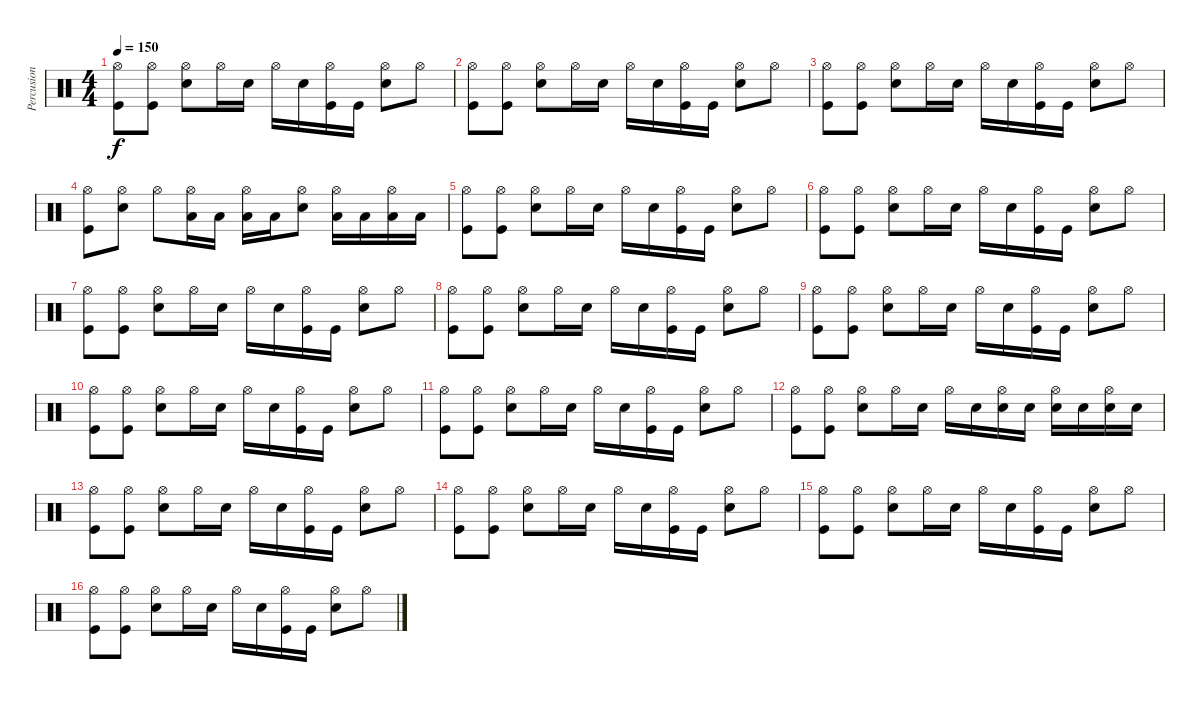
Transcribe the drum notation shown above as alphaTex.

\track ("Percusion" "Percusion") {instrument percussion}
\staff {score}
\articulation defaults
\ts (4 4)
\tempo 150
\clef neutral
\ks c
("Hi-Hat (open)" "Kick (hit)").8{dy f} ("Hi-Hat (open)" "Kick (hit)").8 ("Hi-Hat (open)" "Electric Snare (hit)").8 "Hi-Hat (open)".16 "Electric Snare (hit)".16 "Hi-Hat (open)".16 "Electric Snare (hit)".16 ("Hi-Hat (open)" "Kick (hit)").16 "Kick (hit)".16 ("Hi-Hat (open)" "Electric Snare (hit)").8 "Hi-Hat (open)".8 |
("Hi-Hat (open)" "Kick (hit)").8 ("Hi-Hat (open)" "Kick (hit)").8 ("Hi-Hat (open)" "Electric Snare (hit)").8 "Hi-Hat (open)".16 "Electric Snare (hit)".16 "Hi-Hat (open)".16 "Electric Snare (hit)".16 ("Hi-Hat (open)" "Kick (hit)").16 "Kick (hit)".16 ("Hi-Hat (open)" "Electric Snare (hit)").8 "Hi-Hat (open)".8 |
("Hi-Hat (open)" "Kick (hit)").8 ("Hi-Hat (open)" "Kick (hit)").8 ("Hi-Hat (open)" "Electric Snare (hit)").8 "Hi-Hat (open)".16 "Electric Snare (hit)".16 "Hi-Hat (open)".16 "Electric Snare (hit)".16 ("Hi-Hat (open)" "Kick (hit)").16 "Kick (hit)".16 ("Hi-Hat (open)" "Electric Snare (hit)").8 "Hi-Hat (open)".8 |
("Hi-Hat (open)" "Kick (hit)").8 ("Hi-Hat (open)" "Electric Snare (hit)").8 "Hi-Hat (open)".8 ("Hi-Hat (open)" "Low Tom (hit)").16 "Low Tom (hit)".16 ("Hi-Hat (open)" "Low Tom (hit)").16 "Low Tom (hit)".16 ("Hi-Hat (open)" "Electric Snare (hit)").8 ("Hi-Hat (open)" "Low Tom (hit)").16 "Low Tom (hit)".16 ("Hi-Hat (open)" "Low Tom (hit)").16 "Low Tom (hit)".16 |
("Hi-Hat (open)" "Kick (hit)").8 ("Hi-Hat (open)" "Kick (hit)").8 ("Hi-Hat (open)" "Electric Snare (hit)").8 "Hi-Hat (open)".16 "Electric Snare (hit)".16 "Hi-Hat (open)".16 "Electric Snare (hit)".16 ("Hi-Hat (open)" "Kick (hit)").16 "Kick (hit)".16 ("Hi-Hat (open)" "Electric Snare (hit)").8 "Hi-Hat (open)".8 |
("Hi-Hat (open)" "Kick (hit)").8 ("Hi-Hat (open)" "Kick (hit)").8 ("Hi-Hat (open)" "Electric Snare (hit)").8 "Hi-Hat (open)".16 "Electric Snare (hit)".16 "Hi-Hat (open)".16 "Electric Snare (hit)".16 ("Hi-Hat (open)" "Kick (hit)").16 "Kick (hit)".16 ("Hi-Hat (open)" "Electric Snare (hit)").8 "Hi-Hat (open)".8 |
("Hi-Hat (open)" "Kick (hit)").8 ("Hi-Hat (open)" "Kick (hit)").8 ("Hi-Hat (open)" "Electric Snare (hit)").8 "Hi-Hat (open)".16 "Electric Snare (hit)".16 "Hi-Hat (open)".16 "Electric Snare (hit)".16 ("Hi-Hat (open)" "Kick (hit)").16 "Kick (hit)".16 ("Hi-Hat (open)" "Electric Snare (hit)").8 "Hi-Hat (open)".8 |
("Hi-Hat (open)" "Kick (hit)").8 ("Hi-Hat (open)" "Kick (hit)").8 ("Hi-Hat (open)" "Electric Snare (hit)").8 "Hi-Hat (open)".16 "Electric Snare (hit)".16 "Hi-Hat (open)".16 "Electric Snare (hit)".16 ("Hi-Hat (open)" "Kick (hit)").16 "Kick (hit)".16 ("Hi-Hat (open)" "Electric Snare (hit)").8 "Hi-Hat (open)".8 |
("Hi-Hat (open)" "Kick (hit)").8 ("Hi-Hat (open)" "Kick (hit)").8 ("Hi-Hat (open)" "Electric Snare (hit)").8 "Hi-Hat (open)".16 "Electric Snare (hit)".16 "Hi-Hat (open)".16 "Electric Snare (hit)".16 ("Hi-Hat (open)" "Kick (hit)").16 "Kick (hit)".16 ("Hi-Hat (open)" "Electric Snare (hit)").8 "Hi-Hat (open)".8 |
("Hi-Hat (open)" "Kick (hit)").8 ("Hi-Hat (open)" "Kick (hit)").8 ("Hi-Hat (open)" "Electric Snare (hit)").8 "Hi-Hat (open)".16 "Electric Snare (hit)".16 "Hi-Hat (open)".16 "Electric Snare (hit)".16 ("Hi-Hat (open)" "Kick (hit)").16 "Kick (hit)".16 ("Hi-Hat (open)" "Electric Snare (hit)").8 "Hi-Hat (open)".8 |
("Hi-Hat (open)" "Kick (hit)").8 ("Hi-Hat (open)" "Kick (hit)").8 ("Hi-Hat (open)" "Electric Snare (hit)").8 "Hi-Hat (open)".16 "Electric Snare (hit)".16 "Hi-Hat (open)".16 "Electric Snare (hit)".16 ("Hi-Hat (open)" "Kick (hit)").16 "Kick (hit)".16 ("Hi-Hat (open)" "Electric Snare (hit)").8 "Hi-Hat (open)".8 |
("Hi-Hat (open)" "Kick (hit)").8 ("Hi-Hat (open)" "Kick (hit)").8 ("Hi-Hat (open)" "Electric Snare (hit)").8 "Hi-Hat (open)".16 "Electric Snare (hit)".16 "Hi-Hat (open)".16 "Electric Snare (hit)".16 ("Hi-Hat (open)" "Electric Snare (hit)").16 "Electric Snare (hit)".16 ("Hi-Hat (open)" "Electric Snare (hit)").16 "Electric Snare (hit)".16 ("Hi-Hat (open)" "Electric Snare (hit)").16 "Electric Snare (hit)".16 |
("Hi-Hat (open)" "Kick (hit)").8 ("Hi-Hat (open)" "Kick (hit)").8 ("Hi-Hat (open)" "Electric Snare (hit)").8 "Hi-Hat (open)".16 "Electric Snare (hit)".16 "Hi-Hat (open)".16 "Electric Snare (hit)".16 ("Hi-Hat (open)" "Kick (hit)").16 "Kick (hit)".16 ("Hi-Hat (open)" "Electric Snare (hit)").8 "Hi-Hat (open)".8 |
("Hi-Hat (open)" "Kick (hit)").8 ("Hi-Hat (open)" "Kick (hit)").8 ("Hi-Hat (open)" "Electric Snare (hit)").8 "Hi-Hat (open)".16 "Electric Snare (hit)".16 "Hi-Hat (open)".16 "Electric Snare (hit)".16 ("Hi-Hat (open)" "Kick (hit)").16 "Kick (hit)".16 ("Hi-Hat (open)" "Electric Snare (hit)").8 "Hi-Hat (open)".8 |
("Hi-Hat (open)" "Kick (hit)").8 ("Hi-Hat (open)" "Kick (hit)").8 ("Hi-Hat (open)" "Electric Snare (hit)").8 "Hi-Hat (open)".16 "Electric Snare (hit)".16 "Hi-Hat (open)".16 "Electric Snare (hit)".16 ("Hi-Hat (open)" "Kick (hit)").16 "Kick (hit)".16 ("Hi-Hat (open)" "Electric Snare (hit)").8 "Hi-Hat (open)".8 |
("Hi-Hat (open)" "Kick (hit)").8 ("Hi-Hat (open)" "Kick (hit)").8 ("Hi-Hat (open)" "Electric Snare (hit)").8 "Hi-Hat (open)".16 "Electric Snare (hit)".16 "Hi-Hat (open)".16 "Electric Snare (hit)".16 ("Hi-Hat (open)" "Kick (hit)").16 "Kick (hit)".16 ("Hi-Hat (open)" "Electric Snare (hit)").8 "Hi-Hat (open)".8
